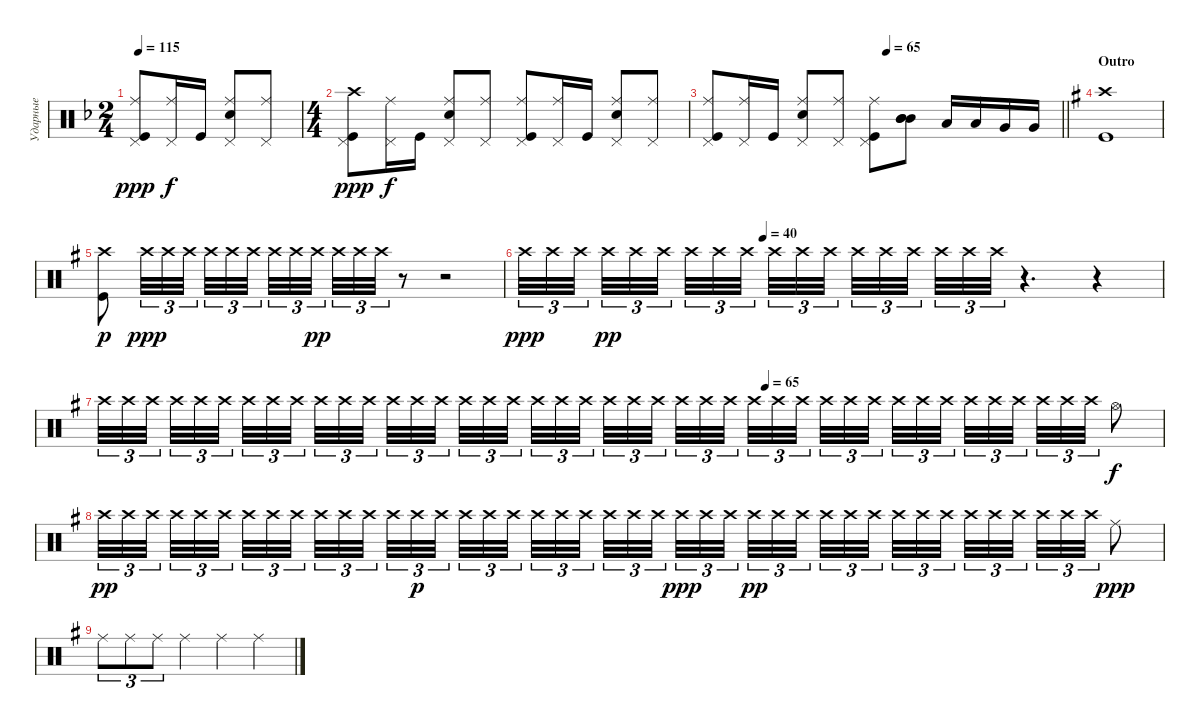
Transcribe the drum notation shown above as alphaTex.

\track ("Ударные" "Ударные") {instrument percussion}
\staff {score}
\articulation defaults
\ts (2 4)
\tempo 115
\clef neutral
\ks dminor
("Kick (hit)" "Pedal Hi-Hat (hit)" "Ride (middle)").8{dy ppp} ("Ride (middle)" "Pedal Hi-Hat (hit)").16{dy f} "Kick (hit)".16 ("Pedal Hi-Hat (hit)" "Snare (hit) 2" "Ride (middle)").8 ("Ride (middle)" "Pedal Hi-Hat (hit)").8 |
\ts (4 4)
("Kick (hit)" "Pedal Hi-Hat (hit)" "Crash high (hit)").8{dy ppp} ("Ride (middle)" "Pedal Hi-Hat (hit)").16{dy f} "Kick (hit)".16 ("Pedal Hi-Hat (hit)" "Snare (hit) 2" "Ride (middle)").8 ("Ride (middle)" "Pedal Hi-Hat (hit)").8 ("Pedal Hi-Hat (hit)" "Kick (hit)" "Ride (middle)").8 ("Ride (middle)" "Pedal Hi-Hat (hit)").16 "Kick (hit)".16 ("Pedal Hi-Hat (hit)" "Snare (hit) 2" "Ride (middle)").8 ("Pedal Hi-Hat (hit)" "Ride (middle)").8 |
\tempo (65 0.5)
\barLineRight lightlight
("Pedal Hi-Hat (hit)" "Kick (hit)" "Ride (middle)").8 ("Ride (middle)" "Pedal Hi-Hat (hit)").16 "Kick (hit)".16 ("Pedal Hi-Hat (hit)" "Snare (hit) 2" "Ride (middle)").8 ("Pedal Hi-Hat (hit)" "Ride (middle)").8 ("Pedal Hi-Hat (hit)" "Kick (hit)" "Ride (middle)").8 ("Mid Tom (hit)" "Mid Tom (hit)" "Mid Tom (hit)").8{bd 240} "Low Tom (hit)".16 "Low Tom (hit)".16 "Very Low Tom (hit)".16 "Very Low Tom (hit)".16 |
\section ("" "Outro")
\ks eminor
("Kick (hit)" "Crash high (hit)").1 |
("Crash high (hit)" "Kick (hit)").8{dy p} "Crash high (hit)".32{tu (3 2) dy ppp} "Crash high (hit)".32{tu (3 2)} "Crash high (hit)".32{tu (3 2) beam splitsecondary} "Crash high (hit)".32{tu (3 2)} "Crash high (hit)".32{tu (3 2)} "Crash high (hit)".32{tu (3 2)} "Crash high (hit)".32{tu (3 2)} "Crash high (hit)".32{tu (3 2)} "Crash high (hit)".32{tu (3 2) dy pp beam splitsecondary} "Crash high (hit)".32{tu (3 2)} "Crash high (hit)".32{tu (3 2)} "Crash high (hit)".32{tu (3 2)} r.8 r.2 |
\tempo (40 0.375)
"Crash high (hit)".32{tu (3 2) dy ppp} "Crash high (hit)".32{tu (3 2)} "Crash high (hit)".32{tu (3 2) beam splitsecondary} "Crash high (hit)".32{tu (3 2) dy pp} "Crash high (hit)".32{tu (3 2)} "Crash high (hit)".32{tu (3 2) beam splitsecondary} "Crash high (hit)".32{tu (3 2)} "Crash high (hit)".32{tu (3 2)} "Crash high (hit)".32{tu (3 2) beam splitsecondary} "Crash high (hit)".32{tu (3 2)} "Crash high (hit)".32{tu (3 2)} "Crash high (hit)".32{tu (3 2)} "Crash high (hit)".32{tu (3 2)} "Crash high (hit)".32{tu (3 2)} "Crash high (hit)".32{tu (3 2) beam splitsecondary} "Crash high (hit)".32{tu (3 2)} "Crash high (hit)".32{tu (3 2)} "Crash high (hit)".32{tu (3 2)} r.4{d} r.4 |
\tempo (65 0.625)
"Crash high (hit)".32{tu (3 2)} "Crash high (hit)".32{tu (3 2)} "Crash high (hit)".32{tu (3 2) beam splitsecondary} "Crash high (hit)".32{tu (3 2)} "Crash high (hit)".32{tu (3 2)} "Crash high (hit)".32{tu (3 2) beam splitsecondary} "Crash high (hit)".32{tu (3 2)} "Crash high (hit)".32{tu (3 2)} "Crash high (hit)".32{tu (3 2) beam splitsecondary} "Crash high (hit)".32{tu (3 2)} "Crash high (hit)".32{tu (3 2)} "Crash high (hit)".32{tu (3 2)} "Crash high (hit)".32{tu (3 2)} "Crash high (hit)".32{tu (3 2)} "Crash high (hit)".32{tu (3 2) beam splitsecondary} "Crash high (hit)".32{tu (3 2)} "Crash high (hit)".32{tu (3 2)} "Crash high (hit)".32{tu (3 2) beam splitsecondary} "Crash high (hit)".32{tu (3 2)} "Crash high (hit)".32{tu (3 2)} "Crash high (hit)".32{tu (3 2) beam splitsecondary} "Crash high (hit)".32{tu (3 2)} "Crash high (hit)".32{tu (3 2)} "Crash high (hit)".32{tu (3 2)} "Crash high (hit)".32{tu (3 2)} "Crash high (hit)".32{tu (3 2)} "Crash high (hit)".32{tu (3 2) beam splitsecondary} "Crash high (hit)".32{tu (3 2)} "Crash high (hit)".32{tu (3 2)} "Crash high (hit)".32{tu (3 2) beam splitsecondary} "Crash high (hit)".32{tu (3 2)} "Crash high (hit)".32{tu (3 2)} "Crash high (hit)".32{tu (3 2) beam splitsecondary} "Crash high (hit)".32{tu (3 2)} "Crash high (hit)".32{tu (3 2)} "Crash high (hit)".32{tu (3 2)} "Crash high (hit)".32{tu (3 2)} "Crash high (hit)".32{tu (3 2)} "Crash high (hit)".32{tu (3 2) beam splitsecondary} "Crash high (hit)".32{tu (3 2)} "Crash high (hit)".32{tu (3 2)} "Crash high (hit)".32{tu (3 2)} "Hi-Hat (open)".8{dy f} |
"Crash high (hit)".32{tu (3 2) dy pp} "Crash high (hit)".32{tu (3 2)} "Crash high (hit)".32{tu (3 2) beam splitsecondary} "Crash high (hit)".32{tu (3 2)} "Crash high (hit)".32{tu (3 2)} "Crash high (hit)".32{tu (3 2) beam splitsecondary} "Crash high (hit)".32{tu (3 2)} "Crash high (hit)".32{tu (3 2)} "Crash high (hit)".32{tu (3 2) beam splitsecondary} "Crash high (hit)".32{tu (3 2)} "Crash high (hit)".32{tu (3 2)} "Crash high (hit)".32{tu (3 2)} "Crash high (hit)".32{tu (3 2)} "Crash high (hit)".32{tu (3 2) dy p} "Crash high (hit)".32{tu (3 2) beam splitsecondary} "Crash high (hit)".32{tu (3 2)} "Crash high (hit)".32{tu (3 2)} "Crash high (hit)".32{tu (3 2) beam splitsecondary} "Crash high (hit)".32{tu (3 2)} "Crash high (hit)".32{tu (3 2)} "Crash high (hit)".32{tu (3 2) beam splitsecondary} "Crash high (hit)".32{tu (3 2)} "Crash high (hit)".32{tu (3 2)} "Crash high (hit)".32{tu (3 2)} "Crash high (hit)".32{tu (3 2) dy ppp} "Crash high (hit)".32{tu (3 2)} "Crash high (hit)".32{tu (3 2) beam splitsecondary} "Crash high (hit)".32{tu (3 2) dy pp} "Crash high (hit)".32{tu (3 2)} "Crash high (hit)".32{tu (3 2) beam splitsecondary} "Crash high (hit)".32{tu (3 2)} "Crash high (hit)".32{tu (3 2)} "Crash high (hit)".32{tu (3 2) beam splitsecondary} "Crash high (hit)".32{tu (3 2)} "Crash high (hit)".32{tu (3 2)} "Crash high (hit)".32{tu (3 2)} "Crash high (hit)".32{tu (3 2)} "Crash high (hit)".32{tu (3 2)} "Crash high (hit)".32{tu (3 2) beam splitsecondary} "Crash high (hit)".32{tu (3 2)} "Crash high (hit)".32{tu (3 2)} "Crash high (hit)".32{tu (3 2)} "Ride (middle)".8{dy ppp} |
"Ride (middle)".8{tu (3 2)} "Ride (middle)".8{tu (3 2)} "Ride (middle)".8{tu (3 2)} "Ride (middle)".4 "Ride (middle)".4 "Ride (middle)".4
